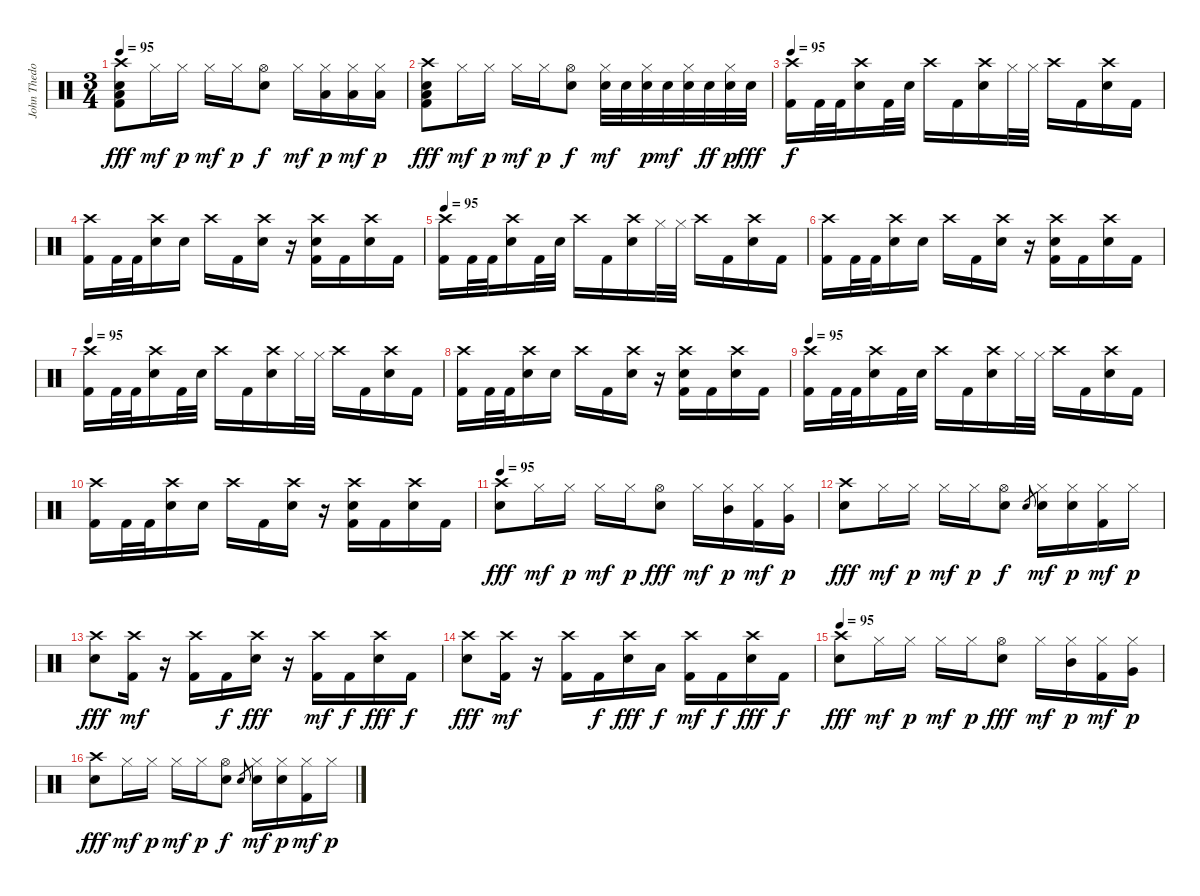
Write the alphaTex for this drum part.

\track ("John Thedore" "John Thedo") {instrument percussion}
\staff {score}
\articulation defaults
\ts (3 4)
\tempo 95
\clef neutral
\ks c
("Low Tom (hit)" "Kick (hit) 2" "Crash high (hit)" "Electric Snare (hit)").8{dy fff} "Hi-Hat (closed)".16{dy mf} "Hi-Hat (closed)".16{dy p} "Hi-Hat (closed)".16{dy mf} "Hi-Hat (closed)".16{dy p} ("Hi-Hat (open)" "Electric Snare (hit)").8{dy f} "Hi-Hat (closed)".16{dy mf} ("Low Tom (hit)" "Hi-Hat (closed)").16{dy p} ("Low Tom (hit)" "Hi-Hat (closed)").16{dy mf} ("Low Tom (hit)" "Hi-Hat (closed)").16{dy p} |
("Low Tom (hit)" "Kick (hit) 2" "Crash high (hit)" "Electric Snare (hit)").8{dy fff} "Hi-Hat (closed)".16{dy mf} "Hi-Hat (closed)".16{dy p} "Hi-Hat (closed)".16{dy mf} "Hi-Hat (closed)".16{dy p} ("Hi-Hat (open)" "Electric Snare (hit)").8{dy f} ("Electric Snare (hit)" "Hi-Hat (closed)").32{dy mf} "Electric Snare (hit)".32 ("Electric Snare (hit)" "Hi-Hat (closed)").32{dy p} "Electric Snare (hit)".32{dy mf} ("Electric Snare (hit)" "Hi-Hat (closed)").32 "Electric Snare (hit)".32{dy ff} ("Electric Snare (hit)" "Hi-Hat (closed)").32{dy p} "Electric Snare (hit)".32{dy fff} |
\tempo 95
("Crash high (hit)" "Kick (hit) 2").16{dy f} "Kick (hit) 2".32 "Kick (hit) 2".32 ("Crash high (hit)" "Electric Snare (hit)").16 "Kick (hit) 2".32 "Electric Snare (hit)".32 "Crash high (hit)".16 "Kick (hit) 2".16 ("Crash high (hit)" "Electric Snare (hit)").16 "Hi-Hat (closed)".32 "Hi-Hat (closed)".32 "Crash high (hit)".16 "Kick (hit) 2".16 ("Crash high (hit)" "Electric Snare (hit)").16 "Kick (hit) 2".16 |
("Crash high (hit)" "Kick (hit) 2").16 "Kick (hit) 2".32 "Kick (hit) 2".32 ("Crash high (hit)" "Electric Snare (hit)").16 "Electric Snare (hit)".16 "Crash high (hit)".16 "Kick (hit) 2".16 ("Crash high (hit)" "Electric Snare (hit)").16 r.16 ("Crash high (hit)" "Electric Snare (hit)" "Kick (hit) 2").16 "Kick (hit) 2".16 ("Crash high (hit)" "Electric Snare (hit)").16 "Kick (hit) 2".16 |
\tempo 95
("Crash high (hit)" "Kick (hit) 2").16 "Kick (hit) 2".32 "Kick (hit) 2".32 ("Crash high (hit)" "Electric Snare (hit)").16 "Kick (hit) 2".32 "Electric Snare (hit)".32 "Crash high (hit)".16 "Kick (hit) 2".16 ("Crash high (hit)" "Electric Snare (hit)").16 "Hi-Hat (closed)".32 "Hi-Hat (closed)".32 "Crash high (hit)".16 "Kick (hit) 2".16 ("Crash high (hit)" "Electric Snare (hit)").16 "Kick (hit) 2".16 |
("Crash high (hit)" "Kick (hit) 2").16 "Kick (hit) 2".32 "Kick (hit) 2".32 ("Crash high (hit)" "Electric Snare (hit)").16 "Electric Snare (hit)".16 "Crash high (hit)".16 "Kick (hit) 2".16 ("Crash high (hit)" "Electric Snare (hit)").16 r.16 ("Crash high (hit)" "Electric Snare (hit)" "Kick (hit) 2").16 "Kick (hit) 2".16 ("Crash high (hit)" "Electric Snare (hit)").16 "Kick (hit) 2".16 |
\tempo 95
("Crash high (hit)" "Kick (hit) 2").16 "Kick (hit) 2".32 "Kick (hit) 2".32 ("Crash high (hit)" "Electric Snare (hit)").16 "Kick (hit) 2".32 "Electric Snare (hit)".32 "Crash high (hit)".16 "Kick (hit) 2".16 ("Crash high (hit)" "Electric Snare (hit)").16 "Hi-Hat (closed)".32 "Hi-Hat (closed)".32 "Crash high (hit)".16 "Kick (hit) 2".16 ("Crash high (hit)" "Electric Snare (hit)").16 "Kick (hit) 2".16 |
("Crash high (hit)" "Kick (hit) 2").16 "Kick (hit) 2".32 "Kick (hit) 2".32 ("Crash high (hit)" "Electric Snare (hit)").16 "Electric Snare (hit)".16 "Crash high (hit)".16 "Kick (hit) 2".16 ("Crash high (hit)" "Electric Snare (hit)").16 r.16 ("Crash high (hit)" "Electric Snare (hit)" "Kick (hit) 2").16 "Kick (hit) 2".16 ("Crash high (hit)" "Electric Snare (hit)").16 "Kick (hit) 2".16 |
\tempo 95
("Crash high (hit)" "Kick (hit) 2").16 "Kick (hit) 2".32 "Kick (hit) 2".32 ("Crash high (hit)" "Electric Snare (hit)").16 "Kick (hit) 2".32 "Electric Snare (hit)".32 "Crash high (hit)".16 "Kick (hit) 2".16 ("Crash high (hit)" "Electric Snare (hit)").16 "Hi-Hat (closed)".32 "Hi-Hat (closed)".32 "Crash high (hit)".16 "Kick (hit) 2".16 ("Crash high (hit)" "Electric Snare (hit)").16 "Kick (hit) 2".16 |
("Crash high (hit)" "Kick (hit) 2").16 "Kick (hit) 2".32 "Kick (hit) 2".32 ("Crash high (hit)" "Electric Snare (hit)").16 "Electric Snare (hit)".16 "Crash high (hit)".16 "Kick (hit) 2".16 ("Crash high (hit)" "Electric Snare (hit)").16 r.16 ("Crash high (hit)" "Electric Snare (hit)" "Kick (hit) 2").16 "Kick (hit) 2".16 ("Crash high (hit)" "Electric Snare (hit)").16 "Kick (hit) 2".16 |
\tempo 95
("Crash high (hit)" "Electric Snare (hit)").8{dy fff} "Hi-Hat (closed)".16{dy mf} "Hi-Hat (closed)".16{dy p} "Hi-Hat (closed)".16{dy mf} "Hi-Hat (closed)".16{dy p} ("Hi-Hat (open)" "Electric Snare (hit)").8{dy fff} "Hi-Hat (closed)".16{dy mf} ("Hi-Hat (closed)" "Mid Tom (hit)").16{dy p} ("Hi-Hat (closed)" "Kick (hit) 2").16{dy mf} ("Hi-Hat (closed)" "Very Low Tom (hit)").16{dy p} |
("Crash high (hit)" "Electric Snare (hit)").8{dy fff} "Hi-Hat (closed)".16{dy mf} "Hi-Hat (closed)".16{dy p} "Hi-Hat (closed)".16{dy mf} "Hi-Hat (closed)".16{dy p} ("Hi-Hat (open)" "Electric Snare (hit)").8{dy f} "Electric Snare (hit)".8{gr} ("Hi-Hat (closed)" "Electric Snare (hit)").16{dy mf} ("Hi-Hat (closed)" "Electric Snare (hit)").16{dy p} ("Hi-Hat (closed)" "Kick (hit) 2").16{dy mf} "Hi-Hat (closed)".16{dy p} |
("Crash high (hit)" "Electric Snare (hit)").8{dy fff} ("Crash high (hit)" "Kick (hit) 2").16{dy mf} r.16 ("Crash high (hit)" "Kick (hit) 2").16 "Kick (hit) 2".16{dy f} ("Crash high (hit)" "Electric Snare (hit)").16{dy fff} r.16 ("Crash high (hit)" "Kick (hit) 2").16{dy mf} "Kick (hit) 2".16{dy f} ("Crash high (hit)" "Electric Snare (hit)").16{dy fff} "Kick (hit) 2".16{dy f} |
("Crash high (hit)" "Electric Snare (hit)").8{dy fff} ("Crash high (hit)" "Kick (hit) 2").16{dy mf} r.16 ("Crash high (hit)" "Kick (hit) 2").16 "Kick (hit) 2".16{dy f} ("Crash high (hit)" "Electric Snare (hit)").16{dy fff} "Low Tom (hit)".16{dy f} ("Crash high (hit)" "Kick (hit) 2").16{dy mf} "Kick (hit) 2".16{dy f} ("Crash high (hit)" "Electric Snare (hit)").16{dy fff} "Kick (hit) 2".16{dy f} |
\tempo 95
("Crash high (hit)" "Electric Snare (hit)").8{dy fff} "Hi-Hat (closed)".16{dy mf} "Hi-Hat (closed)".16{dy p} "Hi-Hat (closed)".16{dy mf} "Hi-Hat (closed)".16{dy p} ("Hi-Hat (open)" "Electric Snare (hit)").8{dy fff} "Hi-Hat (closed)".16{dy mf} ("Hi-Hat (closed)" "Mid Tom (hit)").16{dy p} ("Hi-Hat (closed)" "Kick (hit) 2").16{dy mf} ("Hi-Hat (closed)" "Very Low Tom (hit)").16{dy p} |
("Crash high (hit)" "Electric Snare (hit)").8{dy fff} "Hi-Hat (closed)".16{dy mf} "Hi-Hat (closed)".16{dy p} "Hi-Hat (closed)".16{dy mf} "Hi-Hat (closed)".16{dy p} ("Hi-Hat (open)" "Electric Snare (hit)").8{dy f} "Electric Snare (hit)".8{gr} ("Hi-Hat (closed)" "Electric Snare (hit)").16{dy mf} ("Hi-Hat (closed)" "Electric Snare (hit)").16{dy p} ("Hi-Hat (closed)" "Kick (hit) 2").16{dy mf} "Hi-Hat (closed)".16{dy p}
